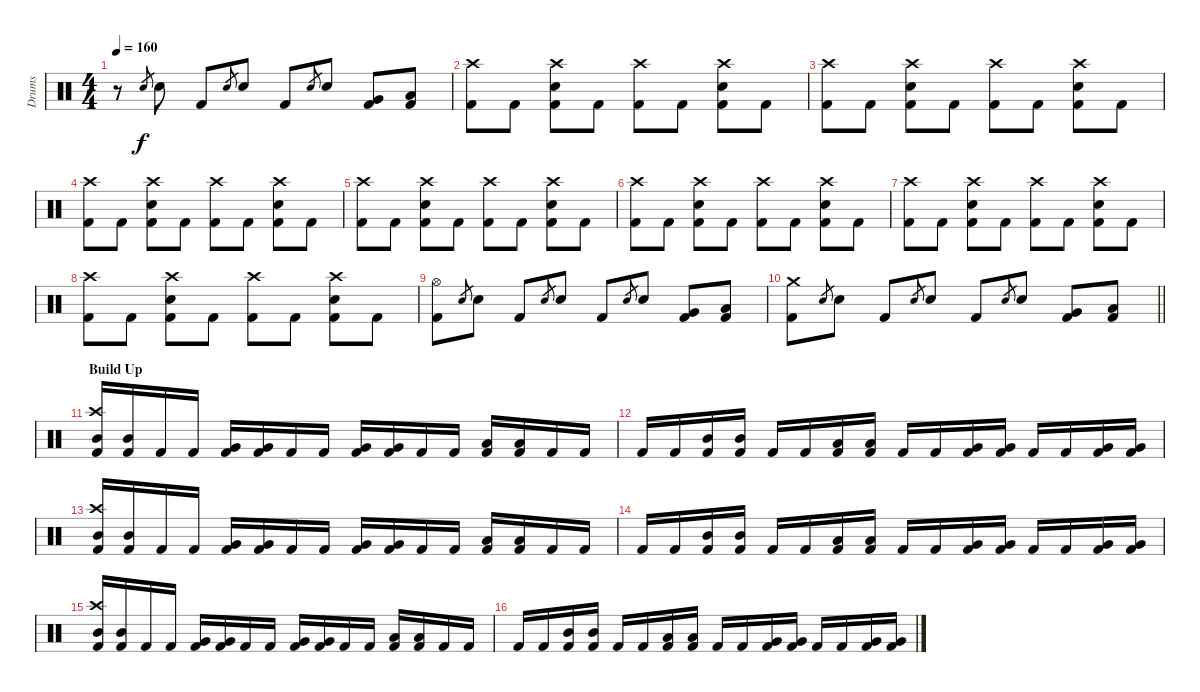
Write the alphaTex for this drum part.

\track ("Drums" "Drums") {instrument percussion}
\staff {score}
\articulation defaults
\ts (4 4)
\tempo 160
\clef neutral
\ks c
r.8{dy f} "Electric Snare (hit)".8{gr} "Electric Snare (hit)".8 "Kick (hit) 2".8 "Electric Snare (hit)".8{gr} "Electric Snare (hit)".8 "Kick (hit) 2".8 "Electric Snare (hit)".8{gr} "Electric Snare (hit)".8 ("Very Low Tom (hit)" "Kick (hit) 2").8 ("Low Floor Tom (hit)" "Kick (hit) 2").8 |
("Crash high (hit)" "Kick (hit) 2").8 "Kick (hit) 2".8 ("Crash high (hit)" "Electric Snare (hit)" "Kick (hit) 2").8 "Kick (hit) 2".8 ("Crash high (hit)" "Kick (hit) 2").8 "Kick (hit) 2".8 ("Crash high (hit)" "Electric Snare (hit)" "Kick (hit) 2").8 "Kick (hit) 2".8 |
("Crash high (hit)" "Kick (hit) 2").8 "Kick (hit) 2".8 ("Crash high (hit)" "Electric Snare (hit)" "Kick (hit) 2").8 "Kick (hit) 2".8 ("Crash high (hit)" "Kick (hit) 2").8 "Kick (hit) 2".8 ("Crash high (hit)" "Electric Snare (hit)" "Kick (hit) 2").8 "Kick (hit) 2".8 |
("Crash high (hit)" "Kick (hit) 2").8 "Kick (hit) 2".8 ("Crash high (hit)" "Electric Snare (hit)" "Kick (hit) 2").8 "Kick (hit) 2".8 ("Crash high (hit)" "Kick (hit) 2").8 "Kick (hit) 2".8 ("Crash high (hit)" "Electric Snare (hit)" "Kick (hit) 2").8 "Kick (hit) 2".8 |
("Crash high (hit)" "Kick (hit) 2").8 "Kick (hit) 2".8 ("Crash high (hit)" "Electric Snare (hit)" "Kick (hit) 2").8 "Kick (hit) 2".8 ("Crash high (hit)" "Kick (hit) 2").8 "Kick (hit) 2".8 ("Crash high (hit)" "Electric Snare (hit)" "Kick (hit) 2").8 "Kick (hit) 2".8 |
("Crash high (hit)" "Kick (hit) 2").8 "Kick (hit) 2".8 ("Crash high (hit)" "Electric Snare (hit)" "Kick (hit) 2").8 "Kick (hit) 2".8 ("Crash high (hit)" "Kick (hit) 2").8 "Kick (hit) 2".8 ("Crash high (hit)" "Electric Snare (hit)" "Kick (hit) 2").8 "Kick (hit) 2".8 |
("Crash high (hit)" "Kick (hit) 2").8 "Kick (hit) 2".8 ("Crash high (hit)" "Electric Snare (hit)" "Kick (hit) 2").8 "Kick (hit) 2".8 ("Crash high (hit)" "Kick (hit) 2").8 "Kick (hit) 2".8 ("Crash high (hit)" "Electric Snare (hit)" "Kick (hit) 2").8 "Kick (hit) 2".8 |
("Crash high (hit)" "Kick (hit) 2").8 "Kick (hit) 2".8 ("Crash high (hit)" "Electric Snare (hit)" "Kick (hit) 2").8 "Kick (hit) 2".8 ("Crash high (hit)" "Kick (hit) 2").8 "Kick (hit) 2".8 ("Crash high (hit)" "Electric Snare (hit)" "Kick (hit) 2").8 "Kick (hit) 2".8 |
("Hi-Hat (open)" "Kick (hit) 2").8 "Electric Snare (hit)".8{gr} "Electric Snare (hit)".8 "Kick (hit) 2".8 "Electric Snare (hit)".8{gr} "Electric Snare (hit)".8 "Kick (hit) 2".8 "Electric Snare (hit)".8{gr} "Electric Snare (hit)".8 ("Very Low Tom (hit)" "Kick (hit) 2").8 ("Low Floor Tom (hit)" "Kick (hit) 2").8 |
\barLineRight lightlight
("Crash medium (hit)" "Kick (hit) 2").8 "Electric Snare (hit)".8{gr} "Electric Snare (hit)".8 "Kick (hit) 2".8 "Electric Snare (hit)".8{gr} "Electric Snare (hit)".8 "Kick (hit) 2".8 "Electric Snare (hit)".8{gr} "Electric Snare (hit)".8 ("Very Low Tom (hit)" "Kick (hit) 2").8 ("Low Floor Tom (hit)" "Kick (hit) 2").8 |
\section ("" "Build Up")
("Crash high (hit)" "Mid Tom (hit)" "Kick (hit) 2").16 ("Mid Tom (hit)" "Kick (hit) 2").16 "Kick (hit) 2".16 "Kick (hit) 2".16 ("Very Low Tom (hit)" "Kick (hit) 2").16 ("Very Low Tom (hit)" "Kick (hit) 2").16 "Kick (hit) 2".16 "Kick (hit) 2".16 ("Very Low Tom (hit)" "Kick (hit) 2").16 ("Very Low Tom (hit)" "Kick (hit) 2").16 "Kick (hit) 2".16 "Kick (hit) 2".16 ("Low Floor Tom (hit)" "Kick (hit) 2").16 ("Low Floor Tom (hit)" "Kick (hit) 2").16 "Kick (hit) 2".16 "Kick (hit) 2".16 |
"Kick (hit) 2".16 "Kick (hit) 2".16 ("Mid Tom (hit)" "Kick (hit) 2").16 ("Mid Tom (hit)" "Kick (hit) 2").16 "Kick (hit) 2".16 "Kick (hit) 2".16 ("Low Tom (hit)" "Kick (hit) 2").16 ("Low Tom (hit)" "Kick (hit) 2").16 "Kick (hit) 2".16 "Kick (hit) 2".16 ("Very Low Tom (hit)" "Kick (hit) 2").16 ("Very Low Tom (hit)" "Kick (hit) 2").16 "Kick (hit) 2".16 "Kick (hit) 2".16 ("Very Low Tom (hit)" "Kick (hit) 2").16 ("Very Low Tom (hit)" "Kick (hit) 2").16 |
("Crash high (hit)" "Mid Tom (hit)" "Kick (hit) 2").16 ("Mid Tom (hit)" "Kick (hit) 2").16 "Kick (hit) 2".16 "Kick (hit) 2".16 ("Very Low Tom (hit)" "Kick (hit) 2").16 ("Very Low Tom (hit)" "Kick (hit) 2").16 "Kick (hit) 2".16 "Kick (hit) 2".16 ("Very Low Tom (hit)" "Kick (hit) 2").16 ("Very Low Tom (hit)" "Kick (hit) 2").16 "Kick (hit) 2".16 "Kick (hit) 2".16 ("Low Floor Tom (hit)" "Kick (hit) 2").16 ("Low Floor Tom (hit)" "Kick (hit) 2").16 "Kick (hit) 2".16 "Kick (hit) 2".16 |
"Kick (hit) 2".16 "Kick (hit) 2".16 ("Mid Tom (hit)" "Kick (hit) 2").16 ("Mid Tom (hit)" "Kick (hit) 2").16 "Kick (hit) 2".16 "Kick (hit) 2".16 ("Low Tom (hit)" "Kick (hit) 2").16 ("Low Tom (hit)" "Kick (hit) 2").16 "Kick (hit) 2".16 "Kick (hit) 2".16 ("Very Low Tom (hit)" "Kick (hit) 2").16 ("Very Low Tom (hit)" "Kick (hit) 2").16 "Kick (hit) 2".16 "Kick (hit) 2".16 ("Very Low Tom (hit)" "Kick (hit) 2").16 ("Very Low Tom (hit)" "Kick (hit) 2").16 |
("Crash high (hit)" "Mid Tom (hit)" "Kick (hit) 2").16 ("Mid Tom (hit)" "Kick (hit) 2").16 "Kick (hit) 2".16 "Kick (hit) 2".16 ("Very Low Tom (hit)" "Kick (hit) 2").16 ("Very Low Tom (hit)" "Kick (hit) 2").16 "Kick (hit) 2".16 "Kick (hit) 2".16 ("Very Low Tom (hit)" "Kick (hit) 2").16 ("Very Low Tom (hit)" "Kick (hit) 2").16 "Kick (hit) 2".16 "Kick (hit) 2".16 ("Low Floor Tom (hit)" "Kick (hit) 2").16 ("Low Floor Tom (hit)" "Kick (hit) 2").16 "Kick (hit) 2".16 "Kick (hit) 2".16 |
"Kick (hit) 2".16 "Kick (hit) 2".16 ("Mid Tom (hit)" "Kick (hit) 2").16 ("Mid Tom (hit)" "Kick (hit) 2").16 "Kick (hit) 2".16 "Kick (hit) 2".16 ("Low Tom (hit)" "Kick (hit) 2").16 ("Low Tom (hit)" "Kick (hit) 2").16 "Kick (hit) 2".16 "Kick (hit) 2".16 ("Very Low Tom (hit)" "Kick (hit) 2").16 ("Very Low Tom (hit)" "Kick (hit) 2").16 "Kick (hit) 2".16 "Kick (hit) 2".16 ("Very Low Tom (hit)" "Kick (hit) 2").16 ("Very Low Tom (hit)" "Kick (hit) 2").16
